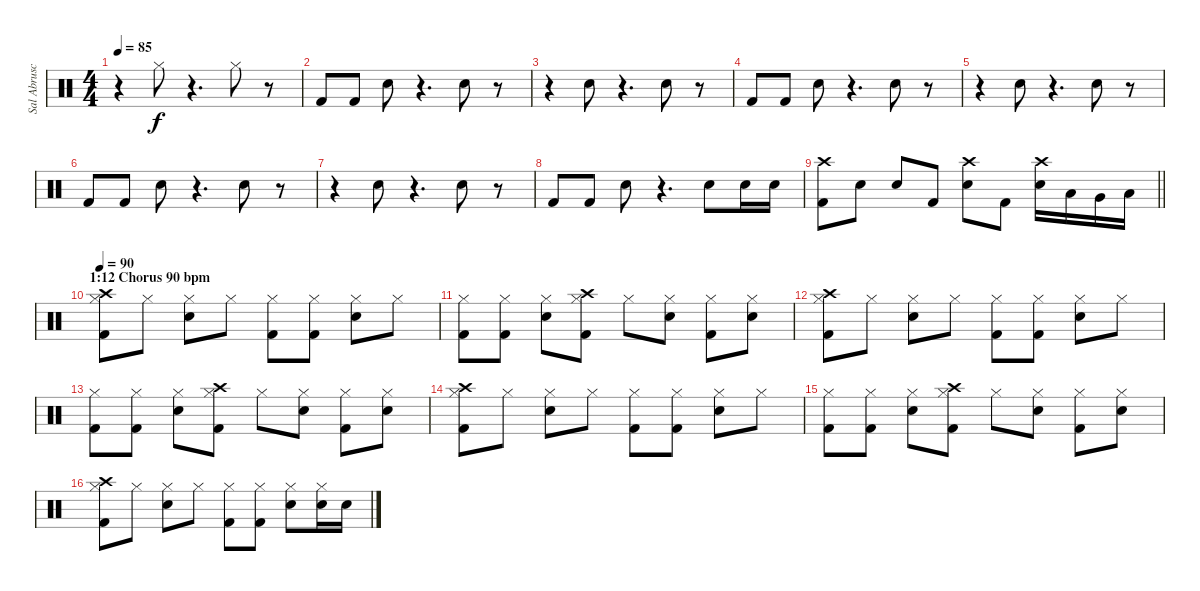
\track ("Sal Abruscato (Drums)" "Sal Abrusc") {instrument percussion}
\staff {score}
\articulation defaults
\ts (4 4)
\tempo 85
\clef neutral
\ks c
r.4{dy f} "Hi-Hat (closed)".8 r.4{d} "Hi-Hat (closed)".8 r.8 |
"Kick (hit) 2".8 "Kick (hit) 2".8 "Electric Snare (hit)".8 r.4{d} "Electric Snare (hit)".8 r.8 |
r.4 "Electric Snare (hit)".8 r.4{d} "Electric Snare (hit)".8 r.8 |
"Kick (hit) 2".8 "Kick (hit) 2".8 "Electric Snare (hit)".8 r.4{d} "Electric Snare (hit)".8 r.8 |
r.4 "Electric Snare (hit)".8 r.4{d} "Electric Snare (hit)".8 r.8 |
"Kick (hit) 2".8 "Kick (hit) 2".8 "Electric Snare (hit)".8 r.4{d} "Electric Snare (hit)".8 r.8 |
r.4 "Electric Snare (hit)".8 r.4{d} "Electric Snare (hit)".8 r.8 |
"Kick (hit) 2".8 "Kick (hit) 2".8 "Electric Snare (hit)".8 r.4{d} "Electric Snare (hit)".8 "Electric Snare (hit)".16 "Electric Snare (hit)".16 |
\barLineRight lightlight
("Crash high (hit)" "Kick (hit) 2").8 "Electric Snare (hit)".8 "Electric Snare (hit)".8 "Kick (hit) 2".8 ("Crash high (hit)" "Electric Snare (hit)").8 "Kick (hit) 2".8 ("Crash high (hit)" "Electric Snare (hit)").16 "Low Tom (hit)".16 "Very Low Tom (hit)".16 "Low Floor Tom (hit)".16 |
\section ("" "1:12 Chorus 90 bpm")
\tempo 90
("Crash high (hit)" "Hi-Hat (closed)" "Kick (hit) 2").8 "Hi-Hat (closed)".8 ("Hi-Hat (closed)" "Electric Snare (hit)").8 "Hi-Hat (closed)".8 ("Hi-Hat (closed)" "Kick (hit) 2").8 ("Hi-Hat (closed)" "Kick (hit) 2").8 ("Hi-Hat (closed)" "Electric Snare (hit)").8 "Hi-Hat (closed)".8 |
("Hi-Hat (closed)" "Kick (hit) 2").8 ("Hi-Hat (closed)" "Kick (hit) 2").8 ("Hi-Hat (closed)" "Electric Snare (hit)").8 ("Crash high (hit)" "Hi-Hat (closed)" "Kick (hit) 2").8 "Hi-Hat (closed)".8 ("Hi-Hat (closed)" "Electric Snare (hit)").8 ("Hi-Hat (closed)" "Kick (hit) 2").8 ("Hi-Hat (closed)" "Electric Snare (hit)").8 |
("Crash high (hit)" "Hi-Hat (closed)" "Kick (hit) 2").8 "Hi-Hat (closed)".8 ("Hi-Hat (closed)" "Electric Snare (hit)").8 "Hi-Hat (closed)".8 ("Hi-Hat (closed)" "Kick (hit) 2").8 ("Hi-Hat (closed)" "Kick (hit) 2").8 ("Hi-Hat (closed)" "Electric Snare (hit)").8 "Hi-Hat (closed)".8 |
("Hi-Hat (closed)" "Kick (hit) 2").8 ("Hi-Hat (closed)" "Kick (hit) 2").8 ("Hi-Hat (closed)" "Electric Snare (hit)").8 ("Crash high (hit)" "Hi-Hat (closed)" "Kick (hit) 2").8 "Hi-Hat (closed)".8 ("Hi-Hat (closed)" "Electric Snare (hit)").8 ("Hi-Hat (closed)" "Kick (hit) 2").8 ("Hi-Hat (closed)" "Electric Snare (hit)").8 |
("Crash high (hit)" "Hi-Hat (closed)" "Kick (hit) 2").8 "Hi-Hat (closed)".8 ("Hi-Hat (closed)" "Electric Snare (hit)").8 "Hi-Hat (closed)".8 ("Hi-Hat (closed)" "Kick (hit) 2").8 ("Hi-Hat (closed)" "Kick (hit) 2").8 ("Hi-Hat (closed)" "Electric Snare (hit)").8 "Hi-Hat (closed)".8 |
("Hi-Hat (closed)" "Kick (hit) 2").8 ("Hi-Hat (closed)" "Kick (hit) 2").8 ("Hi-Hat (closed)" "Electric Snare (hit)").8 ("Crash high (hit)" "Hi-Hat (closed)" "Kick (hit) 2").8 "Hi-Hat (closed)".8 ("Hi-Hat (closed)" "Electric Snare (hit)").8 ("Hi-Hat (closed)" "Kick (hit) 2").8 ("Hi-Hat (closed)" "Electric Snare (hit)").8 |
("Crash high (hit)" "Hi-Hat (closed)" "Kick (hit) 2").8 "Hi-Hat (closed)".8 ("Hi-Hat (closed)" "Electric Snare (hit)").8 "Hi-Hat (closed)".8 ("Hi-Hat (closed)" "Kick (hit) 2").8 ("Hi-Hat (closed)" "Kick (hit) 2").8 ("Hi-Hat (closed)" "Electric Snare (hit)").8 ("Electric Snare (hit)" "Hi-Hat (closed)").16 "Electric Snare (hit)".16
